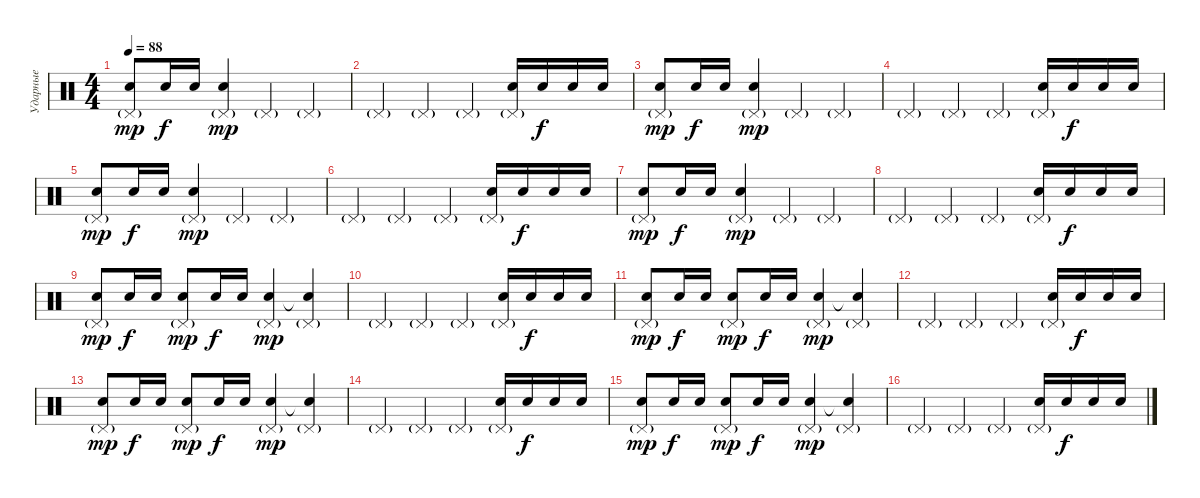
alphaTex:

\track ("Ударные" "Ударные") {instrument percussion}
\staff {score}
\articulation defaults
\ts (4 4)
\tempo 88
\clef neutral
\ks c
("Snare (hit) 2" "Pedal Hi-Hat (hit)"{g}).8{dy mp} "Snare (hit) 2".16{dy f} "Snare (hit) 2".16 ("Snare (hit) 2" "Pedal Hi-Hat (hit)"{g}).4{dy mp} "Pedal Hi-Hat (hit)"{g}.4 "Pedal Hi-Hat (hit)"{g}.4 |
"Pedal Hi-Hat (hit)"{g}.4 "Pedal Hi-Hat (hit)"{g}.4 "Pedal Hi-Hat (hit)"{g}.4 ("Snare (hit) 2" "Pedal Hi-Hat (hit)"{g}).16 "Snare (hit) 2".16{dy f} "Snare (hit) 2".16 "Snare (hit) 2".16 |
("Snare (hit) 2" "Pedal Hi-Hat (hit)"{g}).8{dy mp} "Snare (hit) 2".16{dy f} "Snare (hit) 2".16 ("Snare (hit) 2" "Pedal Hi-Hat (hit)"{g}).4{dy mp} "Pedal Hi-Hat (hit)"{g}.4 "Pedal Hi-Hat (hit)"{g}.4 |
"Pedal Hi-Hat (hit)"{g}.4 "Pedal Hi-Hat (hit)"{g}.4 "Pedal Hi-Hat (hit)"{g}.4 ("Snare (hit) 2" "Pedal Hi-Hat (hit)"{g}).16 "Snare (hit) 2".16{dy f} "Snare (hit) 2".16 "Snare (hit) 2".16 |
("Snare (hit) 2" "Pedal Hi-Hat (hit)"{g}).8{dy mp} "Snare (hit) 2".16{dy f} "Snare (hit) 2".16 ("Snare (hit) 2" "Pedal Hi-Hat (hit)"{g}).4{dy mp} "Pedal Hi-Hat (hit)"{g}.4 "Pedal Hi-Hat (hit)"{g}.4 |
"Pedal Hi-Hat (hit)"{g}.4 "Pedal Hi-Hat (hit)"{g}.4 "Pedal Hi-Hat (hit)"{g}.4 ("Snare (hit) 2" "Pedal Hi-Hat (hit)"{g}).16 "Snare (hit) 2".16{dy f} "Snare (hit) 2".16 "Snare (hit) 2".16 |
("Snare (hit) 2" "Pedal Hi-Hat (hit)"{g}).8{dy mp} "Snare (hit) 2".16{dy f} "Snare (hit) 2".16 ("Snare (hit) 2" "Pedal Hi-Hat (hit)"{g}).4{dy mp} "Pedal Hi-Hat (hit)"{g}.4 "Pedal Hi-Hat (hit)"{g}.4 |
"Pedal Hi-Hat (hit)"{g}.4 "Pedal Hi-Hat (hit)"{g}.4 "Pedal Hi-Hat (hit)"{g}.4 ("Snare (hit) 2" "Pedal Hi-Hat (hit)"{g}).16 "Snare (hit) 2".16{dy f} "Snare (hit) 2".16 "Snare (hit) 2".16 |
("Snare (hit) 2" "Pedal Hi-Hat (hit)"{g}).8{dy mp} "Snare (hit) 2".16{dy f} "Snare (hit) 2".16 ("Snare (hit) 2" "Pedal Hi-Hat (hit)"{g}).8{dy mp} "Snare (hit) 2".16{dy f} "Snare (hit) 2".16 ("Snare (hit) 2" "Pedal Hi-Hat (hit)"{g}).4{dy mp} ("Snare (hit)"{t} "Pedal Hi-Hat (hit)"{g}).4 |
"Pedal Hi-Hat (hit)"{g}.4 "Pedal Hi-Hat (hit)"{g}.4 "Pedal Hi-Hat (hit)"{g}.4 ("Snare (hit) 2" "Pedal Hi-Hat (hit)"{g}).16 "Snare (hit) 2".16{dy f} "Snare (hit) 2".16 "Snare (hit) 2".16 |
("Snare (hit) 2" "Pedal Hi-Hat (hit)"{g}).8{dy mp} "Snare (hit) 2".16{dy f} "Snare (hit) 2".16 ("Snare (hit) 2" "Pedal Hi-Hat (hit)"{g}).8{dy mp} "Snare (hit) 2".16{dy f} "Snare (hit) 2".16 ("Snare (hit) 2" "Pedal Hi-Hat (hit)"{g}).4{dy mp} ("Snare (hit)"{t} "Pedal Hi-Hat (hit)"{g}).4 |
"Pedal Hi-Hat (hit)"{g}.4 "Pedal Hi-Hat (hit)"{g}.4 "Pedal Hi-Hat (hit)"{g}.4 ("Snare (hit) 2" "Pedal Hi-Hat (hit)"{g}).16 "Snare (hit) 2".16{dy f} "Snare (hit) 2".16 "Snare (hit) 2".16 |
("Snare (hit) 2" "Pedal Hi-Hat (hit)"{g}).8{dy mp} "Snare (hit) 2".16{dy f} "Snare (hit) 2".16 ("Snare (hit) 2" "Pedal Hi-Hat (hit)"{g}).8{dy mp} "Snare (hit) 2".16{dy f} "Snare (hit) 2".16 ("Snare (hit) 2" "Pedal Hi-Hat (hit)"{g}).4{dy mp} ("Snare (hit)"{t} "Pedal Hi-Hat (hit)"{g}).4 |
"Pedal Hi-Hat (hit)"{g}.4 "Pedal Hi-Hat (hit)"{g}.4 "Pedal Hi-Hat (hit)"{g}.4 ("Snare (hit) 2" "Pedal Hi-Hat (hit)"{g}).16 "Snare (hit) 2".16{dy f} "Snare (hit) 2".16 "Snare (hit) 2".16 |
("Snare (hit) 2" "Pedal Hi-Hat (hit)"{g}).8{dy mp} "Snare (hit) 2".16{dy f} "Snare (hit) 2".16 ("Snare (hit) 2" "Pedal Hi-Hat (hit)"{g}).8{dy mp} "Snare (hit) 2".16{dy f} "Snare (hit) 2".16 ("Snare (hit) 2" "Pedal Hi-Hat (hit)"{g}).4{dy mp} ("Snare (hit)"{t} "Pedal Hi-Hat (hit)"{g}).4 |
"Pedal Hi-Hat (hit)"{g}.4 "Pedal Hi-Hat (hit)"{g}.4 "Pedal Hi-Hat (hit)"{g}.4 ("Snare (hit) 2" "Pedal Hi-Hat (hit)"{g}).16 "Snare (hit) 2".16{dy f} "Snare (hit) 2".16 "Snare (hit) 2".16
